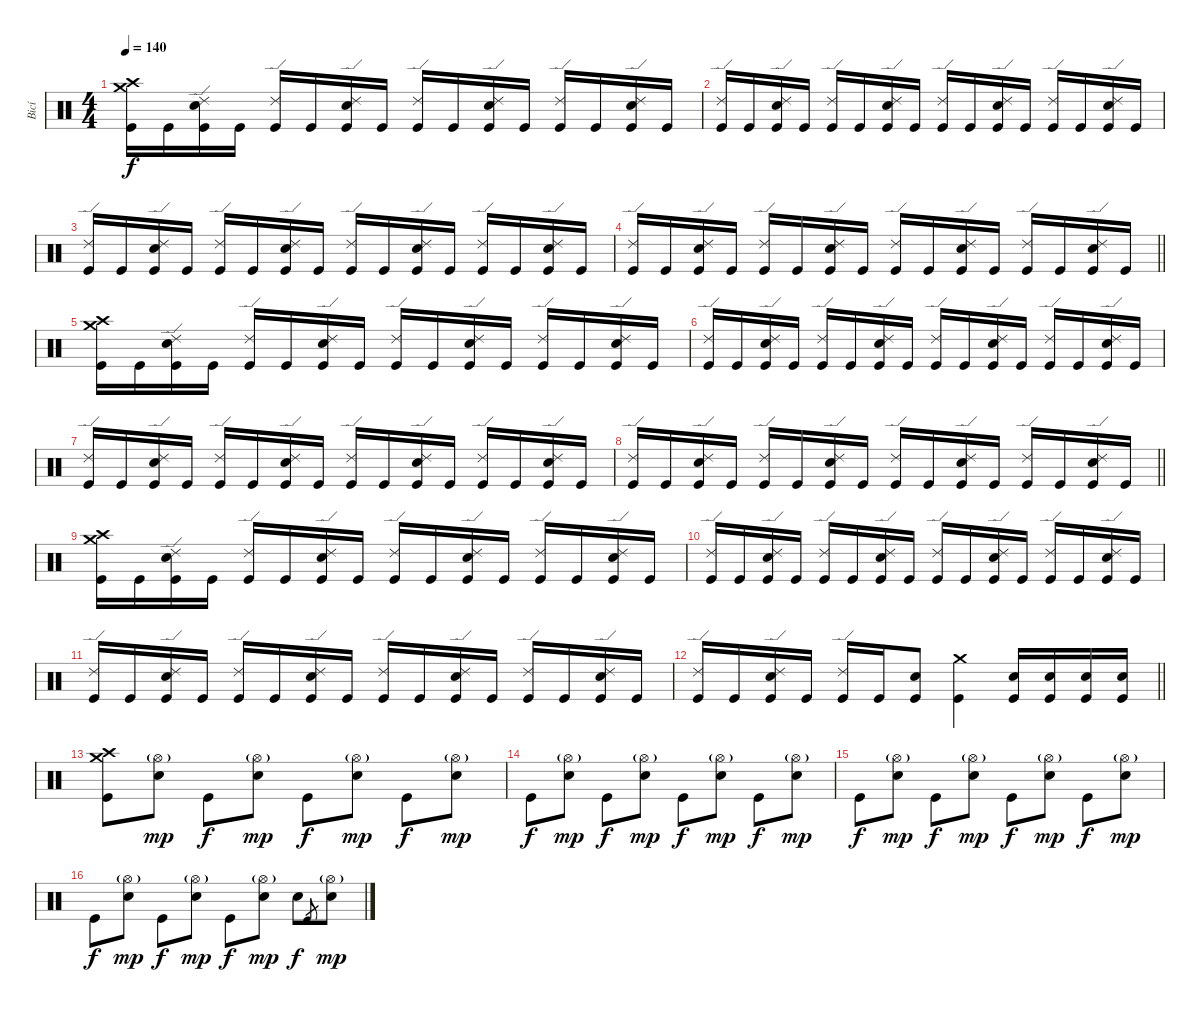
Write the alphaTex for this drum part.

\track ("Bicí" "Bicí") {instrument percussion}
\staff {score}
\articulation defaults
\ts (4 4)
\tempo 140
\clef neutral
\ks c
("Crash high (hit)" "Crash medium (hit)" "Kick (hit)").16{dy f} "Kick (hit)".16 ("Ride (edge) 2" "Electric Snare (hit)" "Kick (hit)").16 "Kick (hit)".16 ("Ride (edge) 2" "Kick (hit)").16 "Kick (hit)".16 ("Ride (edge) 2" "Electric Snare (hit)" "Kick (hit)").16 "Kick (hit)".16 ("Ride (edge) 2" "Kick (hit)").16 "Kick (hit)".16 ("Ride (edge) 2" "Electric Snare (hit)" "Kick (hit)").16 "Kick (hit)".16 ("Ride (edge) 2" "Kick (hit)").16 "Kick (hit)".16 ("Ride (edge) 2" "Electric Snare (hit)" "Kick (hit)").16 "Kick (hit)".16 |
("Ride (edge) 2" "Kick (hit)").16 "Kick (hit)".16 ("Ride (edge) 2" "Electric Snare (hit)" "Kick (hit)").16 "Kick (hit)".16 ("Ride (edge) 2" "Kick (hit)").16 "Kick (hit)".16 ("Ride (edge) 2" "Electric Snare (hit)" "Kick (hit)").16 "Kick (hit)".16 ("Ride (edge) 2" "Kick (hit)").16 "Kick (hit)".16 ("Ride (edge) 2" "Electric Snare (hit)" "Kick (hit)").16 "Kick (hit)".16 ("Ride (edge) 2" "Kick (hit)").16 "Kick (hit)".16 ("Ride (edge) 2" "Electric Snare (hit)" "Kick (hit)").16 "Kick (hit)".16 |
("Ride (edge) 2" "Kick (hit)").16 "Kick (hit)".16 ("Ride (edge) 2" "Electric Snare (hit)" "Kick (hit)").16 "Kick (hit)".16 ("Ride (edge) 2" "Kick (hit)").16 "Kick (hit)".16 ("Ride (edge) 2" "Electric Snare (hit)" "Kick (hit)").16 "Kick (hit)".16 ("Ride (edge) 2" "Kick (hit)").16 "Kick (hit)".16 ("Ride (edge) 2" "Electric Snare (hit)" "Kick (hit)").16 "Kick (hit)".16 ("Ride (edge) 2" "Kick (hit)").16 "Kick (hit)".16 ("Ride (edge) 2" "Electric Snare (hit)" "Kick (hit)").16 "Kick (hit)".16 |
\barLineRight lightlight
("Ride (edge) 2" "Kick (hit)").16 "Kick (hit)".16 ("Ride (edge) 2" "Electric Snare (hit)" "Kick (hit)").16 "Kick (hit)".16 ("Ride (edge) 2" "Kick (hit)").16 "Kick (hit)".16 ("Ride (edge) 2" "Electric Snare (hit)" "Kick (hit)").16 "Kick (hit)".16 ("Ride (edge) 2" "Kick (hit)").16 "Kick (hit)".16 ("Ride (edge) 2" "Electric Snare (hit)" "Kick (hit)").16 "Kick (hit)".16 ("Ride (edge) 2" "Kick (hit)").16 "Kick (hit)".16 ("Ride (edge) 2" "Electric Snare (hit)" "Kick (hit)").16 "Kick (hit)".16 |
("Crash high (hit)" "Crash medium (hit)" "Kick (hit)").16 "Kick (hit)".16 ("Ride (edge) 2" "Electric Snare (hit)" "Kick (hit)").16 "Kick (hit)".16 ("Ride (edge) 2" "Kick (hit)").16 "Kick (hit)".16 ("Ride (edge) 2" "Electric Snare (hit)" "Kick (hit)").16 "Kick (hit)".16 ("Ride (edge) 2" "Kick (hit)").16 "Kick (hit)".16 ("Ride (edge) 2" "Electric Snare (hit)" "Kick (hit)").16 "Kick (hit)".16 ("Ride (edge) 2" "Kick (hit)").16 "Kick (hit)".16 ("Ride (edge) 2" "Electric Snare (hit)" "Kick (hit)").16 "Kick (hit)".16 |
("Ride (edge) 2" "Kick (hit)").16 "Kick (hit)".16 ("Ride (edge) 2" "Electric Snare (hit)" "Kick (hit)").16 "Kick (hit)".16 ("Ride (edge) 2" "Kick (hit)").16 "Kick (hit)".16 ("Ride (edge) 2" "Electric Snare (hit)" "Kick (hit)").16 "Kick (hit)".16 ("Ride (edge) 2" "Kick (hit)").16 "Kick (hit)".16 ("Ride (edge) 2" "Electric Snare (hit)" "Kick (hit)").16 "Kick (hit)".16 ("Ride (edge) 2" "Kick (hit)").16 "Kick (hit)".16 ("Ride (edge) 2" "Electric Snare (hit)" "Kick (hit)").16 "Kick (hit)".16 |
("Ride (edge) 2" "Kick (hit)").16 "Kick (hit)".16 ("Ride (edge) 2" "Electric Snare (hit)" "Kick (hit)").16 "Kick (hit)".16 ("Ride (edge) 2" "Kick (hit)").16 "Kick (hit)".16 ("Ride (edge) 2" "Electric Snare (hit)" "Kick (hit)").16 "Kick (hit)".16 ("Ride (edge) 2" "Kick (hit)").16 "Kick (hit)".16 ("Ride (edge) 2" "Electric Snare (hit)" "Kick (hit)").16 "Kick (hit)".16 ("Ride (edge) 2" "Kick (hit)").16 "Kick (hit)".16 ("Ride (edge) 2" "Electric Snare (hit)" "Kick (hit)").16 "Kick (hit)".16 |
\barLineRight lightlight
("Ride (edge) 2" "Kick (hit)").16 "Kick (hit)".16 ("Ride (edge) 2" "Electric Snare (hit)" "Kick (hit)").16 "Kick (hit)".16 ("Ride (edge) 2" "Kick (hit)").16 "Kick (hit)".16 ("Ride (edge) 2" "Electric Snare (hit)" "Kick (hit)").16 "Kick (hit)".16 ("Ride (edge) 2" "Kick (hit)").16 "Kick (hit)".16 ("Ride (edge) 2" "Electric Snare (hit)" "Kick (hit)").16 "Kick (hit)".16 ("Ride (edge) 2" "Kick (hit)").16 "Kick (hit)".16 ("Ride (edge) 2" "Electric Snare (hit)" "Kick (hit)").16 "Kick (hit)".16 |
("Crash high (hit)" "Crash medium (hit)" "Kick (hit)").16 "Kick (hit)".16 ("Ride (edge) 2" "Electric Snare (hit)" "Kick (hit)").16 "Kick (hit)".16 ("Ride (edge) 2" "Kick (hit)").16 "Kick (hit)".16 ("Ride (edge) 2" "Electric Snare (hit)" "Kick (hit)").16 "Kick (hit)".16 ("Ride (edge) 2" "Kick (hit)").16 "Kick (hit)".16 ("Ride (edge) 2" "Electric Snare (hit)" "Kick (hit)").16 "Kick (hit)".16 ("Ride (edge) 2" "Kick (hit)").16 "Kick (hit)".16 ("Ride (edge) 2" "Electric Snare (hit)" "Kick (hit)").16 "Kick (hit)".16 |
("Ride (edge) 2" "Kick (hit)").16 "Kick (hit)".16 ("Ride (edge) 2" "Electric Snare (hit)" "Kick (hit)").16 "Kick (hit)".16 ("Ride (edge) 2" "Kick (hit)").16 "Kick (hit)".16 ("Ride (edge) 2" "Electric Snare (hit)" "Kick (hit)").16 "Kick (hit)".16 ("Ride (edge) 2" "Kick (hit)").16 "Kick (hit)".16 ("Ride (edge) 2" "Electric Snare (hit)" "Kick (hit)").16 "Kick (hit)".16 ("Ride (edge) 2" "Kick (hit)").16 "Kick (hit)".16 ("Ride (edge) 2" "Electric Snare (hit)" "Kick (hit)").16 "Kick (hit)".16 |
("Ride (edge) 2" "Kick (hit)").16 "Kick (hit)".16 ("Ride (edge) 2" "Electric Snare (hit)" "Kick (hit)").16 "Kick (hit)".16 ("Ride (edge) 2" "Kick (hit)").16 "Kick (hit)".16 ("Ride (edge) 2" "Electric Snare (hit)" "Kick (hit)").16 "Kick (hit)".16 ("Ride (edge) 2" "Kick (hit)").16 "Kick (hit)".16 ("Ride (edge) 2" "Electric Snare (hit)" "Kick (hit)").16 "Kick (hit)".16 ("Ride (edge) 2" "Kick (hit)").16 "Kick (hit)".16 ("Ride (edge) 2" "Electric Snare (hit)" "Kick (hit)").16 "Kick (hit)".16 |
\barLineRight lightlight
("Ride (edge) 2" "Kick (hit)").16 "Kick (hit)".16 ("Ride (edge) 2" "Electric Snare (hit)" "Kick (hit)").16 "Kick (hit)".16 ("Ride (edge) 2" "Kick (hit)").16 "Kick (hit)".16 ("Electric Snare (hit)" "Kick (hit)").8 ("Crash medium (hit)" "Kick (hit)").4 ("Kick (hit)" "Electric Snare (hit)").16 ("Kick (hit)" "Electric Snare (hit)").16 ("Kick (hit)" "Electric Snare (hit)").16 ("Kick (hit)" "Electric Snare (hit)").16 |
("Crash high (hit)" "Crash medium (hit)" "Kick (hit)").8 ("Hi-Hat (open)"{g} "Electric Snare (hit)").8{dy mp} "Kick (hit)".8{dy f} ("Hi-Hat (open)"{g} "Electric Snare (hit)").8{dy mp} "Kick (hit)".8{dy f} ("Hi-Hat (open)"{g} "Electric Snare (hit)").8{dy mp} "Kick (hit)".8{dy f} ("Hi-Hat (open)"{g} "Electric Snare (hit)").8{dy mp} |
"Kick (hit)".8{dy f} ("Hi-Hat (open)"{g} "Electric Snare (hit)").8{dy mp} "Kick (hit)".8{dy f} ("Hi-Hat (open)"{g} "Electric Snare (hit)").8{dy mp} "Kick (hit)".8{dy f} ("Hi-Hat (open)"{g} "Electric Snare (hit)").8{dy mp} "Kick (hit)".8{dy f} ("Hi-Hat (open)"{g} "Electric Snare (hit)").8{dy mp} |
"Kick (hit)".8{dy f} ("Hi-Hat (open)"{g} "Electric Snare (hit)").8{dy mp} "Kick (hit)".8{dy f} ("Hi-Hat (open)"{g} "Electric Snare (hit)").8{dy mp} "Kick (hit)".8{dy f} ("Hi-Hat (open)"{g} "Electric Snare (hit)").8{dy mp} "Kick (hit)".8{dy f} ("Hi-Hat (open)"{g} "Electric Snare (hit)").8{dy mp} |
"Kick (hit)".8{dy f} ("Hi-Hat (open)"{g} "Electric Snare (hit)").8{dy mp} "Kick (hit)".8{dy f} ("Hi-Hat (open)"{g} "Electric Snare (hit)").8{dy mp} "Kick (hit)".8{dy f} ("Hi-Hat (open)"{g} "Electric Snare (hit)").8{dy mp} "Snare (hit)".8{dy f} "Kick (hit)".8{gr} ("Hi-Hat (open)"{g} "Electric Snare (hit)").8{dy mp}
